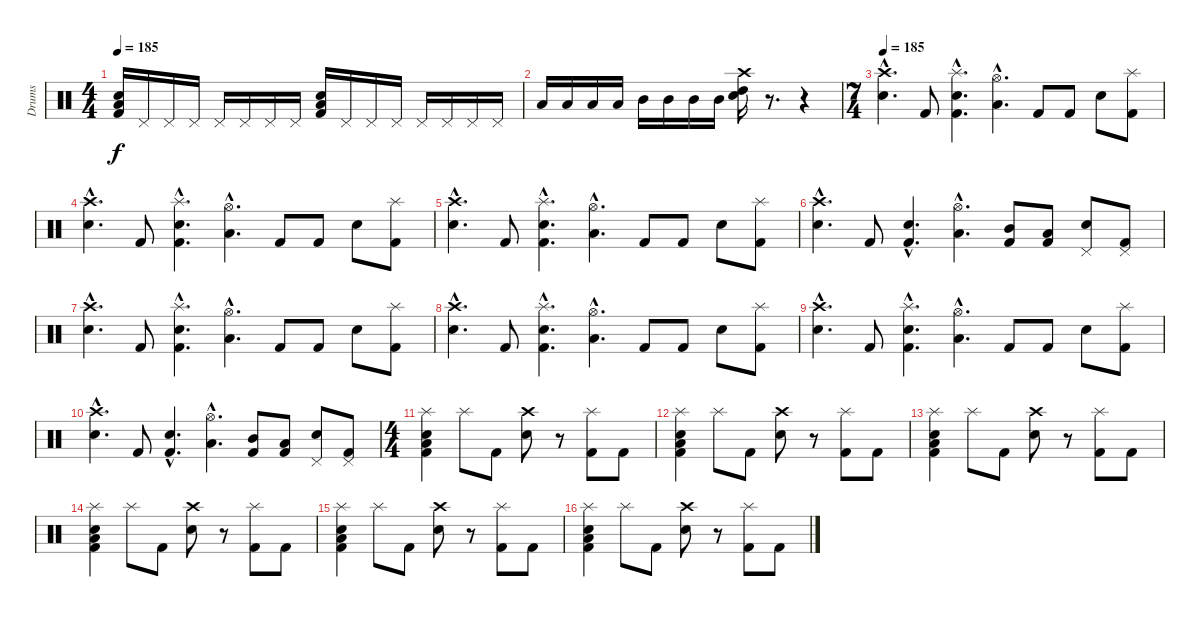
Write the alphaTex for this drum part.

\track ("Drums" "Drums") {instrument percussion}
\staff {score}
\articulation defaults
\ts (4 4)
\tempo 185
\clef neutral
\ks c
("Low Tom (hit)" "Electric Snare (hit)" "Kick (hit) 2").16{dy f} "Pedal Hi-Hat (hit)".16 "Pedal Hi-Hat (hit)".16 "Pedal Hi-Hat (hit)".16 "Pedal Hi-Hat (hit)".16 "Pedal Hi-Hat (hit)".16 "Pedal Hi-Hat (hit)".16 "Pedal Hi-Hat (hit)".16 ("Low Tom (hit)" "Electric Snare (hit)" "Kick (hit) 2").16 "Pedal Hi-Hat (hit)".16 "Pedal Hi-Hat (hit)".16 "Pedal Hi-Hat (hit)".16 "Pedal Hi-Hat (hit)".16 "Pedal Hi-Hat (hit)".16 "Pedal Hi-Hat (hit)".16 "Pedal Hi-Hat (hit)".16 |
"Low Tom (hit)".16 "Low Tom (hit)".16 "Low Tom (hit)".16 "Low Tom (hit)".16 "Mid Tom (hit)".16 "Mid Tom (hit)".16 "Mid Tom (hit)".16 "Mid Tom (hit)".16 ("Electric Snare (hit)" "Crash high (hit)" "High Tom (hit)").16 r.8{d} r.4 |
\ts (7 4)
\tempo 185
("Crash high (hit)"{hac} "Electric Snare (hit)"{hac}).4{d} "Kick (hit) 2".8 ("Splash (hit)"{hac} "Kick (hit) 2"{hac} "Electric Snare (hit)"{hac}).4{d} ("Hi-Hat (open)"{hac} "Low Tom (hit)"{hac}).4{d} "Kick (hit) 2".8 "Kick (hit) 2".8 "Electric Snare (hit)".8 ("Splash (hit)" "Kick (hit) 2").8 |
("Crash high (hit)"{hac} "Electric Snare (hit)"{hac}).4{d} "Kick (hit) 2".8 ("Splash (hit)"{hac} "Kick (hit) 2"{hac} "Electric Snare (hit)"{hac}).4{d} ("Hi-Hat (open)"{hac} "Low Tom (hit)"{hac}).4{d} "Kick (hit) 2".8 "Kick (hit) 2".8 "Electric Snare (hit)".8 ("Splash (hit)" "Kick (hit) 2").8 |
("Crash high (hit)"{hac} "Electric Snare (hit)"{hac}).4{d} "Kick (hit) 2".8 ("Splash (hit)"{hac} "Kick (hit) 2"{hac} "Electric Snare (hit)"{hac}).4{d} ("Hi-Hat (open)"{hac} "Low Tom (hit)"{hac}).4{d} "Kick (hit) 2".8 "Kick (hit) 2".8 "Electric Snare (hit)".8 ("Splash (hit)" "Kick (hit) 2").8 |
("Crash high (hit)"{hac} "Electric Snare (hit)"{hac}).4{d} "Kick (hit) 2".8 ("Kick (hit) 2"{hac} "Electric Snare (hit)"{hac}).4{d} ("Hi-Hat (open)"{hac} "Low Tom (hit)"{hac}).4{d} ("Mid Tom (hit)" "Kick (hit) 2").8 ("Low Tom (hit)" "Kick (hit) 2").8 ("Pedal Hi-Hat (hit)" "Electric Snare (hit)").8 ("Pedal Hi-Hat (hit)" "Kick (hit) 2").8 |
("Crash high (hit)"{hac} "Electric Snare (hit)"{hac}).4{d} "Kick (hit) 2".8 ("Splash (hit)"{hac} "Kick (hit) 2"{hac} "Electric Snare (hit)"{hac}).4{d} ("Hi-Hat (open)"{hac} "Low Tom (hit)"{hac}).4{d} "Kick (hit) 2".8 "Kick (hit) 2".8 "Electric Snare (hit)".8 ("Splash (hit)" "Kick (hit) 2").8 |
("Crash high (hit)"{hac} "Electric Snare (hit)"{hac}).4{d} "Kick (hit) 2".8 ("Splash (hit)"{hac} "Kick (hit) 2"{hac} "Electric Snare (hit)"{hac}).4{d} ("Hi-Hat (open)"{hac} "Low Tom (hit)"{hac}).4{d} "Kick (hit) 2".8 "Kick (hit) 2".8 "Electric Snare (hit)".8 ("Splash (hit)" "Kick (hit) 2").8 |
("Crash high (hit)"{hac} "Electric Snare (hit)"{hac}).4{d} "Kick (hit) 2".8 ("Splash (hit)"{hac} "Kick (hit) 2"{hac} "Electric Snare (hit)"{hac}).4{d} ("Hi-Hat (open)"{hac} "Low Tom (hit)"{hac}).4{d} "Kick (hit) 2".8 "Kick (hit) 2".8 "Electric Snare (hit)".8 ("Splash (hit)" "Kick (hit) 2").8 |
("Crash high (hit)"{hac} "Electric Snare (hit)"{hac}).4{d} "Kick (hit) 2".8 ("Kick (hit) 2"{hac} "Electric Snare (hit)"{hac}).4{d} ("Hi-Hat (open)"{hac} "Low Tom (hit)"{hac}).4{d} ("Mid Tom (hit)" "Kick (hit) 2").8 ("Low Tom (hit)" "Kick (hit) 2").8 ("Pedal Hi-Hat (hit)" "Electric Snare (hit)").8 ("Pedal Hi-Hat (hit)" "Kick (hit) 2").8 |
\ts (4 4)
("Snare (hit) 2" "Splash (hit)" "Kick (hit) 2" "Low Tom (hit)").4 "Splash (hit)".8 "Kick (hit) 2".8 ("Crash high (hit)" "Electric Snare (hit)").8 r.8 ("Splash (hit)" "Kick (hit) 2").8 "Kick (hit) 2".8 |
("Snare (hit) 2" "Splash (hit)" "Kick (hit) 2" "Low Tom (hit)").4 "Splash (hit)".8 "Kick (hit) 2".8 ("Crash high (hit)" "Electric Snare (hit)").8 r.8 ("Splash (hit)" "Kick (hit) 2").8 "Kick (hit) 2".8 |
("Snare (hit) 2" "Splash (hit)" "Kick (hit) 2" "Low Tom (hit)").4 "Splash (hit)".8 "Kick (hit) 2".8 ("Crash high (hit)" "Electric Snare (hit)").8 r.8 ("Splash (hit)" "Kick (hit) 2").8 "Kick (hit) 2".8 |
("Snare (hit) 2" "Splash (hit)" "Kick (hit) 2" "Low Tom (hit)").4 "Splash (hit)".8 "Kick (hit) 2".8 ("Crash high (hit)" "Electric Snare (hit)").8 r.8 ("Splash (hit)" "Kick (hit) 2").8 "Kick (hit) 2".8 |
("Snare (hit) 2" "Splash (hit)" "Kick (hit) 2" "Low Tom (hit)").4 "Splash (hit)".8 "Kick (hit) 2".8 ("Crash high (hit)" "Electric Snare (hit)").8 r.8 ("Splash (hit)" "Kick (hit) 2").8 "Kick (hit) 2".8 |
("Snare (hit) 2" "Splash (hit)" "Kick (hit) 2" "Low Tom (hit)").4 "Splash (hit)".8 "Kick (hit) 2".8 ("Crash high (hit)" "Electric Snare (hit)").8 r.8 ("Splash (hit)" "Kick (hit) 2").8 "Kick (hit) 2".8
